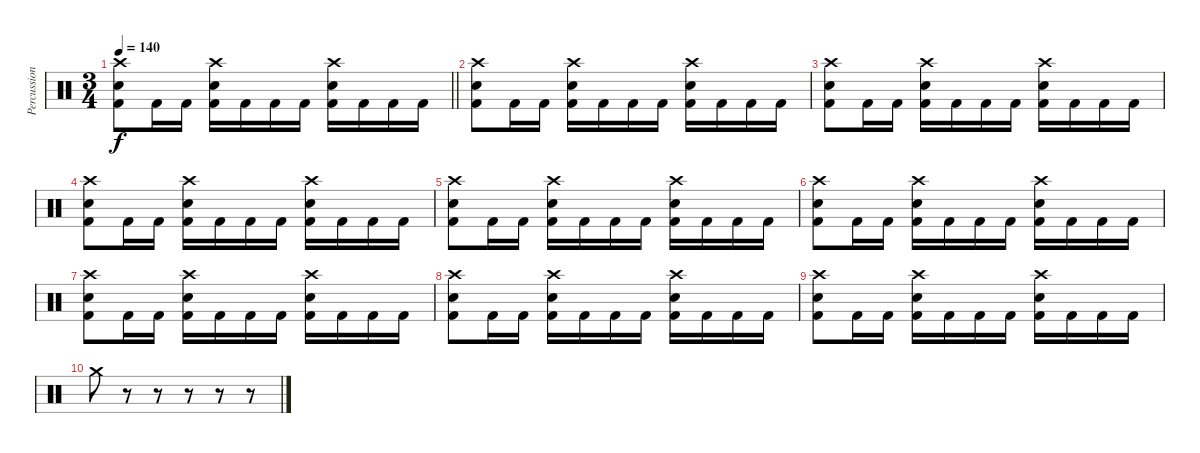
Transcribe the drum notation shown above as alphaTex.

\track ("Percussion" "Percussion") {instrument percussion}
\staff {score}
\articulation defaults
\ts (3 4)
\tempo 140
\clef neutral
\barLineRight lightlight
\ks c
("Crash high (hit)" "Electric Snare (hit)" "Kick (hit) 2").8{dy f} "Kick (hit) 2".16 "Kick (hit) 2".16 ("Crash high (hit)" "Electric Snare (hit)" "Kick (hit) 2").16 "Kick (hit) 2".16 "Kick (hit) 2".16 "Kick (hit) 2".16 ("Crash high (hit)" "Electric Snare (hit)" "Kick (hit) 2").16 "Kick (hit) 2".16 "Kick (hit) 2".16 "Kick (hit) 2".16 |
("Crash high (hit)" "Electric Snare (hit)" "Kick (hit) 2").8 "Kick (hit) 2".16 "Kick (hit) 2".16 ("Crash high (hit)" "Electric Snare (hit)" "Kick (hit) 2").16 "Kick (hit) 2".16 "Kick (hit) 2".16 "Kick (hit) 2".16 ("Crash high (hit)" "Electric Snare (hit)" "Kick (hit) 2").16 "Kick (hit) 2".16 "Kick (hit) 2".16 "Kick (hit) 2".16 |
("Crash high (hit)" "Electric Snare (hit)" "Kick (hit) 2").8 "Kick (hit) 2".16 "Kick (hit) 2".16 ("Crash high (hit)" "Electric Snare (hit)" "Kick (hit) 2").16 "Kick (hit) 2".16 "Kick (hit) 2".16 "Kick (hit) 2".16 ("Crash high (hit)" "Electric Snare (hit)" "Kick (hit) 2").16 "Kick (hit) 2".16 "Kick (hit) 2".16 "Kick (hit) 2".16 |
("Crash high (hit)" "Electric Snare (hit)" "Kick (hit) 2").8 "Kick (hit) 2".16 "Kick (hit) 2".16 ("Crash high (hit)" "Electric Snare (hit)" "Kick (hit) 2").16 "Kick (hit) 2".16 "Kick (hit) 2".16 "Kick (hit) 2".16 ("Crash high (hit)" "Electric Snare (hit)" "Kick (hit) 2").16 "Kick (hit) 2".16 "Kick (hit) 2".16 "Kick (hit) 2".16 |
("Crash high (hit)" "Electric Snare (hit)" "Kick (hit) 2").8 "Kick (hit) 2".16 "Kick (hit) 2".16 ("Crash high (hit)" "Electric Snare (hit)" "Kick (hit) 2").16 "Kick (hit) 2".16 "Kick (hit) 2".16 "Kick (hit) 2".16 ("Crash high (hit)" "Electric Snare (hit)" "Kick (hit) 2").16 "Kick (hit) 2".16 "Kick (hit) 2".16 "Kick (hit) 2".16 |
("Crash high (hit)" "Electric Snare (hit)" "Kick (hit) 2").8 "Kick (hit) 2".16 "Kick (hit) 2".16 ("Crash high (hit)" "Electric Snare (hit)" "Kick (hit) 2").16 "Kick (hit) 2".16 "Kick (hit) 2".16 "Kick (hit) 2".16 ("Crash high (hit)" "Electric Snare (hit)" "Kick (hit) 2").16 "Kick (hit) 2".16 "Kick (hit) 2".16 "Kick (hit) 2".16 |
("Crash high (hit)" "Electric Snare (hit)" "Kick (hit) 2").8 "Kick (hit) 2".16 "Kick (hit) 2".16 ("Crash high (hit)" "Electric Snare (hit)" "Kick (hit) 2").16 "Kick (hit) 2".16 "Kick (hit) 2".16 "Kick (hit) 2".16 ("Crash high (hit)" "Electric Snare (hit)" "Kick (hit) 2").16 "Kick (hit) 2".16 "Kick (hit) 2".16 "Kick (hit) 2".16 |
("Crash high (hit)" "Electric Snare (hit)" "Kick (hit) 2").8 "Kick (hit) 2".16 "Kick (hit) 2".16 ("Crash high (hit)" "Electric Snare (hit)" "Kick (hit) 2").16 "Kick (hit) 2".16 "Kick (hit) 2".16 "Kick (hit) 2".16 ("Crash high (hit)" "Electric Snare (hit)" "Kick (hit) 2").16 "Kick (hit) 2".16 "Kick (hit) 2".16 "Kick (hit) 2".16 |
("Crash high (hit)" "Electric Snare (hit)" "Kick (hit) 2").8 "Kick (hit) 2".16 "Kick (hit) 2".16 ("Crash high (hit)" "Electric Snare (hit)" "Kick (hit) 2").16 "Kick (hit) 2".16 "Kick (hit) 2".16 "Kick (hit) 2".16 ("Crash high (hit)" "Electric Snare (hit)" "Kick (hit) 2").16 "Kick (hit) 2".16 "Kick (hit) 2".16 "Kick (hit) 2".16 |
"Crash medium (hit)".8 r.8 r.8 r.8 r.8 r.8
